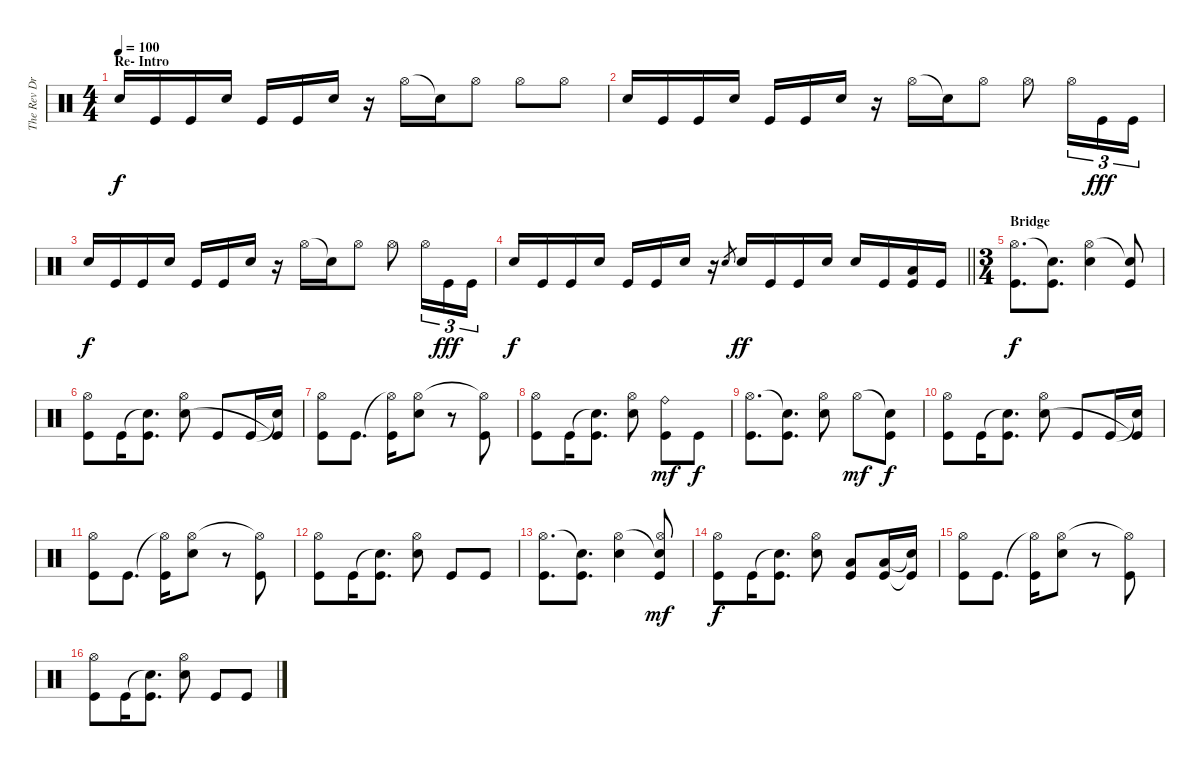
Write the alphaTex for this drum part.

\track ("The Rev Drums" "The Rev Dr") {instrument percussion}
\staff {score}
\articulation defaults
\ts (4 4)
\section ("" "Re- Intro")
\tempo 100
\clef neutral
\ks c "Electric Snare (hit)".16{dy f} "Kick (hit)".16 "Kick (hit)".16 "Electric Snare (hit)".16 "Kick (hit)".16 "Kick (hit)".16 "Electric Snare (hit)".16
r.16 "Hi-Hat (open)".16 "Snare (hit)"{t}.16 "Hi-Hat (open)".8 "Hi-Hat (open)".8 "Hi-Hat (open)".8 |
"Electric Snare (hit)".16 "Kick (hit)".16 "Kick (hit)".16 "Electric Snare (hit)".16 "Kick (hit)".16 "Kick (hit)".16 "Electric Snare (hit)".16 r.16 "Hi-Hat (open)".16 "Snare (hit)"{t}.16 "Hi-Hat (open)".8 "Hi-Hat (open)".8 "Hi-Hat (open)".16{tu (3 2)} "Kick (hit)".16{tu (3 2) dy fff} "Kick (hit)".16{tu (3 2)} |
"Electric Snare (hit)".16{dy f} "Kick (hit)".16 "Kick (hit)".16 "Electric Snare (hit)".16 "Kick (hit)".16 "Kick (hit)".16 "Electric Snare (hit)".16 r.16 "Hi-Hat (open)".16 "Snare (hit)"{t}.16 "Hi-Hat (open)".8 "Hi-Hat (open)".8 "Hi-Hat (open)".16{tu (3 2)} "Kick (hit)".16{tu (3 2) dy fff} "Kick (hit)".16{tu (3 2)} |
\barLineRight lightlight "Electric Snare (hit)".16{dy f} "Kick (hit)".16 "Kick (hit)".16 "Electric Snare (hit)".16 "Kick (hit)".16 "Kick (hit)".16 "Electric Snare (hit)".16
r.16 "Electric Snare (hit)".8{gr} "Electric Snare (hit)".16{dy ff} "Kick (hit)".16 "Kick (hit)".16 "Electric Snare (hit)".16 "Electric Snare (hit)".16 "Kick (hit)".16 ("Low Tom (hit)" "Kick (hit)").16 "Kick (hit)".16 |
\ts (3 4)
\section ("" "Bridge")
("Hi-Hat (open)" "Kick (hit)").8{d dy f} ("Snare (hit)"{t} "Kick (hit)").8{d} ("Hi-Hat (open)" "Electric Snare (hit)").4 ("Snare (hit)"{t} "Kick (hit)").8 |
("Hi-Hat (open)" "Kick (hit)").8 "Kick (hit)".16 ("Snare (hit)"{t} "Kick (hit)").8{d} ("Hi-Hat (open)" "Electric Snare (hit)").8 "Kick (hit)".8 "Kick (hit)".16 ("Snare (hit)"{t} "Kick (hit)"{t}).16 |
("Hi-Hat (open)" "Kick (hit)").8 "Kick (hit)".8{d} ("Hi-Hat (open)"{t} "Kick (hit)").16 ("Hi-Hat (open)" "Electric Snare (hit)").8 r.8 ("Hi-Hat (open)"{t} "Kick (hit)").8 |
("Hi-Hat (open)" "Kick (hit)").8 "Kick (hit)".16 ("Snare (hit)"{t} "Kick (hit)").8{d} ("Hi-Hat (open)" "Electric Snare (hit)").8 ("Ride (bell)" "Kick (hit)").8{dy mf} "Kick (hit)".8{dy f} |
("Hi-Hat (open)" "Kick (hit)").8{d} ("Snare (hit)"{t} "Kick (hit)").8{d} ("Hi-Hat (open)" "Electric Snare (hit)").8 "Hi-Hat (open)".8{dy mf} ("Snare (hit)"{t} "Kick (hit)").8{dy f} |
("Hi-Hat (open)" "Kick (hit)").8 "Kick (hit)".16 ("Snare (hit)"{t} "Kick (hit)").8{d} ("Hi-Hat (open)" "Electric Snare (hit)").8 "Kick (hit)".8 "Kick (hit)".16 ("Snare (hit)"{t} "Kick (hit)"{t}).16 |
("Hi-Hat (open)" "Kick (hit)").8 "Kick (hit)".8{d} ("Hi-Hat (open)"{t} "Kick (hit)").16 ("Hi-Hat (open)" "Electric Snare (hit)").8 r.8 ("Hi-Hat (open)"{t} "Kick (hit)").8 |
("Hi-Hat (open)" "Kick (hit)").8 "Kick (hit)".16 ("Snare (hit)"{t} "Kick (hit)").8{d} ("Hi-Hat (open)" "Electric Snare (hit)").8 "Kick (hit)".8 "Kick (hit)".8 |
("Hi-Hat (open)" "Kick (hit)").8{d} ("Snare (hit)"{t} "Kick (hit)").8{d} ("Hi-Hat (open)" "Electric Snare (hit)").4 ("Snare (hit)"{t} "Hi-Hat (open)" "Kick (hit)").8{dy mf} |
("Hi-Hat (open)" "Kick (hit)").8{dy f} "Kick (hit)".16 ("Snare (hit)"{t} "Kick (hit)").8{d} ("Hi-Hat (open)" "Electric Snare (hit)").8 ("Low Floor Tom (hit)" "Kick (hit)").8 ("Low Floor Tom (hit)" "Kick (hit)").16 ("Snare (hit)"{t} "Kick (hit)"{t}).16 |
("Hi-Hat (open)" "Kick (hit)").8 "Kick (hit)".8{d} ("Hi-Hat (open)"{t} "Kick (hit)").16 ("Hi-Hat (open)" "Electric Snare (hit)").8 r.8 ("Hi-Hat (open)"{t} "Kick (hit)").8 |
("Hi-Hat (open)" "Kick (hit)").8 "Kick (hit)".16 ("Snare (hit)"{t} "Kick (hit)").8{d} ("Hi-Hat (open)" "Electric Snare (hit)").8 "Kick (hit)".8 "Kick (hit)".8
